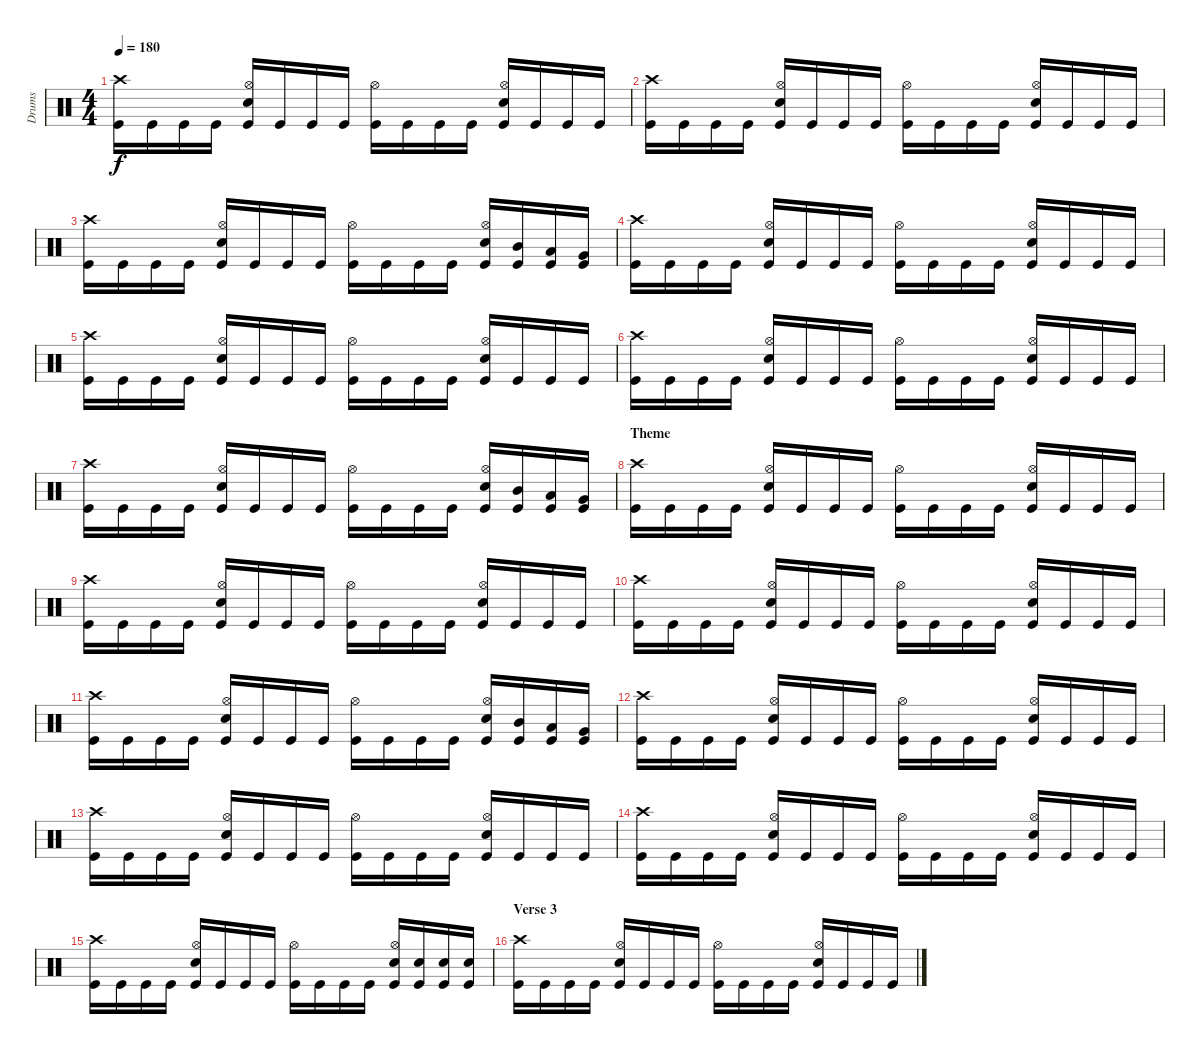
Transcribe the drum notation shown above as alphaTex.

\track ("Drums" "Drums") {instrument percussion}
\staff {score}
\articulation defaults
\ts (4 4)
\tempo 180
\clef neutral
\ks c
("Crash high (hit)" "Kick (hit)").16{dy f} "Kick (hit)".16 "Kick (hit)".16 "Kick (hit)".16 ("Hi-Hat (open)" "Snare (hit) 2" "Kick (hit)").16 "Kick (hit)".16 "Kick (hit)".16 "Kick (hit)".16 ("Hi-Hat (open)" "Kick (hit)").16 "Kick (hit)".16 "Kick (hit)".16 "Kick (hit)".16 ("Hi-Hat (open)" "Snare (hit) 2" "Kick (hit)").16 "Kick (hit)".16 "Kick (hit)".16 "Kick (hit)".16 |
("Crash high (hit)" "Kick (hit)").16 "Kick (hit)".16 "Kick (hit)".16 "Kick (hit)".16 ("Hi-Hat (open)" "Snare (hit) 2" "Kick (hit)").16 "Kick (hit)".16 "Kick (hit)".16 "Kick (hit)".16 ("Hi-Hat (open)" "Kick (hit)").16 "Kick (hit)".16 "Kick (hit)".16 "Kick (hit)".16 ("Hi-Hat (open)" "Snare (hit) 2" "Kick (hit)").16 "Kick (hit)".16 "Kick (hit)".16 "Kick (hit)".16 |
("Crash high (hit)" "Kick (hit)").16 "Kick (hit)".16 "Kick (hit)".16 "Kick (hit)".16 ("Hi-Hat (open)" "Snare (hit) 2" "Kick (hit)").16 "Kick (hit)".16 "Kick (hit)".16 "Kick (hit)".16 ("Hi-Hat (open)" "Kick (hit)").16 "Kick (hit)".16 "Kick (hit)".16 "Kick (hit)".16 ("Hi-Hat (open)" "Snare (hit) 2" "Kick (hit)").16 ("Mid Tom (hit)" "Kick (hit)").16 ("Low Tom (hit)" "Kick (hit)").16 ("Very Low Tom (hit)" "Kick (hit)").16 |
("Crash high (hit)" "Kick (hit)").16 "Kick (hit)".16 "Kick (hit)".16 "Kick (hit)".16 ("Hi-Hat (open)" "Snare (hit) 2" "Kick (hit)").16 "Kick (hit)".16 "Kick (hit)".16 "Kick (hit)".16 ("Hi-Hat (open)" "Kick (hit)").16 "Kick (hit)".16 "Kick (hit)".16 "Kick (hit)".16 ("Hi-Hat (open)" "Snare (hit) 2" "Kick (hit)").16 "Kick (hit)".16 "Kick (hit)".16 "Kick (hit)".16 |
("Crash high (hit)" "Kick (hit)").16 "Kick (hit)".16 "Kick (hit)".16 "Kick (hit)".16 ("Hi-Hat (open)" "Snare (hit) 2" "Kick (hit)").16 "Kick (hit)".16 "Kick (hit)".16 "Kick (hit)".16 ("Hi-Hat (open)" "Kick (hit)").16 "Kick (hit)".16 "Kick (hit)".16 "Kick (hit)".16 ("Hi-Hat (open)" "Snare (hit) 2" "Kick (hit)").16 "Kick (hit)".16 "Kick (hit)".16 "Kick (hit)".16 |
("Crash high (hit)" "Kick (hit)").16 "Kick (hit)".16 "Kick (hit)".16 "Kick (hit)".16 ("Hi-Hat (open)" "Snare (hit) 2" "Kick (hit)").16 "Kick (hit)".16 "Kick (hit)".16 "Kick (hit)".16 ("Hi-Hat (open)" "Kick (hit)").16 "Kick (hit)".16 "Kick (hit)".16 "Kick (hit)".16 ("Hi-Hat (open)" "Snare (hit) 2" "Kick (hit)").16 "Kick (hit)".16 "Kick (hit)".16 "Kick (hit)".16 |
("Crash high (hit)" "Kick (hit)").16 "Kick (hit)".16 "Kick (hit)".16 "Kick (hit)".16 ("Hi-Hat (open)" "Snare (hit) 2" "Kick (hit)").16 "Kick (hit)".16 "Kick (hit)".16 "Kick (hit)".16 ("Hi-Hat (open)" "Kick (hit)").16 "Kick (hit)".16 "Kick (hit)".16 "Kick (hit)".16 ("Hi-Hat (open)" "Snare (hit) 2" "Kick (hit)").16 ("Mid Tom (hit)" "Kick (hit)").16 ("Low Tom (hit)" "Kick (hit)").16 ("Very Low Tom (hit)" "Kick (hit)").16 |
\section ("" "Theme")
("Crash high (hit)" "Kick (hit)").16 "Kick (hit)".16 "Kick (hit)".16 "Kick (hit)".16 ("Hi-Hat (open)" "Snare (hit) 2" "Kick (hit)").16 "Kick (hit)".16 "Kick (hit)".16 "Kick (hit)".16 ("Hi-Hat (open)" "Kick (hit)").16 "Kick (hit)".16 "Kick (hit)".16 "Kick (hit)".16 ("Hi-Hat (open)" "Snare (hit) 2" "Kick (hit)").16 "Kick (hit)".16 "Kick (hit)".16 "Kick (hit)".16 |
("Crash high (hit)" "Kick (hit)").16 "Kick (hit)".16 "Kick (hit)".16 "Kick (hit)".16 ("Hi-Hat (open)" "Snare (hit) 2" "Kick (hit)").16 "Kick (hit)".16 "Kick (hit)".16 "Kick (hit)".16 ("Hi-Hat (open)" "Kick (hit)").16 "Kick (hit)".16 "Kick (hit)".16 "Kick (hit)".16 ("Hi-Hat (open)" "Snare (hit) 2" "Kick (hit)").16 "Kick (hit)".16 "Kick (hit)".16 "Kick (hit)".16 |
("Crash high (hit)" "Kick (hit)").16 "Kick (hit)".16 "Kick (hit)".16 "Kick (hit)".16 ("Hi-Hat (open)" "Snare (hit) 2" "Kick (hit)").16 "Kick (hit)".16 "Kick (hit)".16 "Kick (hit)".16 ("Hi-Hat (open)" "Kick (hit)").16 "Kick (hit)".16 "Kick (hit)".16 "Kick (hit)".16 ("Hi-Hat (open)" "Snare (hit) 2" "Kick (hit)").16 "Kick (hit)".16 "Kick (hit)".16 "Kick (hit)".16 |
("Crash high (hit)" "Kick (hit)").16 "Kick (hit)".16 "Kick (hit)".16 "Kick (hit)".16 ("Hi-Hat (open)" "Snare (hit) 2" "Kick (hit)").16 "Kick (hit)".16 "Kick (hit)".16 "Kick (hit)".16 ("Hi-Hat (open)" "Kick (hit)").16 "Kick (hit)".16 "Kick (hit)".16 "Kick (hit)".16 ("Hi-Hat (open)" "Snare (hit) 2" "Kick (hit)").16 ("Mid Tom (hit)" "Kick (hit)").16 ("Low Tom (hit)" "Kick (hit)").16 ("Very Low Tom (hit)" "Kick (hit)").16 |
("Crash high (hit)" "Kick (hit)").16 "Kick (hit)".16 "Kick (hit)".16 "Kick (hit)".16 ("Hi-Hat (open)" "Snare (hit) 2" "Kick (hit)").16 "Kick (hit)".16 "Kick (hit)".16 "Kick (hit)".16 ("Hi-Hat (open)" "Kick (hit)").16 "Kick (hit)".16 "Kick (hit)".16 "Kick (hit)".16 ("Hi-Hat (open)" "Snare (hit) 2" "Kick (hit)").16 "Kick (hit)".16 "Kick (hit)".16 "Kick (hit)".16 |
("Crash high (hit)" "Kick (hit)").16 "Kick (hit)".16 "Kick (hit)".16 "Kick (hit)".16 ("Hi-Hat (open)" "Snare (hit) 2" "Kick (hit)").16 "Kick (hit)".16 "Kick (hit)".16 "Kick (hit)".16 ("Hi-Hat (open)" "Kick (hit)").16 "Kick (hit)".16 "Kick (hit)".16 "Kick (hit)".16 ("Hi-Hat (open)" "Snare (hit) 2" "Kick (hit)").16 "Kick (hit)".16 "Kick (hit)".16 "Kick (hit)".16 |
("Crash high (hit)" "Kick (hit)").16 "Kick (hit)".16 "Kick (hit)".16 "Kick (hit)".16 ("Hi-Hat (open)" "Snare (hit) 2" "Kick (hit)").16 "Kick (hit)".16 "Kick (hit)".16 "Kick (hit)".16 ("Hi-Hat (open)" "Kick (hit)").16 "Kick (hit)".16 "Kick (hit)".16 "Kick (hit)".16 ("Hi-Hat (open)" "Snare (hit) 2" "Kick (hit)").16 "Kick (hit)".16 "Kick (hit)".16 "Kick (hit)".16 |
("Crash high (hit)" "Kick (hit)").16 "Kick (hit)".16 "Kick (hit)".16 "Kick (hit)".16 ("Hi-Hat (open)" "Snare (hit) 2" "Kick (hit)").16 "Kick (hit)".16 "Kick (hit)".16 "Kick (hit)".16 ("Hi-Hat (open)" "Kick (hit)").16 "Kick (hit)".16 "Kick (hit)".16 "Kick (hit)".16 ("Hi-Hat (open)" "Snare (hit) 2" "Kick (hit)").16 ("Snare (hit) 2" "Kick (hit)").16 ("Snare (hit) 2" "Kick (hit)").16 ("Snare (hit) 2" "Kick (hit)").16 |
\section ("" "Verse 3")
("Crash high (hit)" "Kick (hit)").16 "Kick (hit)".16 "Kick (hit)".16 "Kick (hit)".16 ("Hi-Hat (open)" "Snare (hit) 2" "Kick (hit)").16 "Kick (hit)".16 "Kick (hit)".16 "Kick (hit)".16 ("Hi-Hat (open)" "Kick (hit)").16 "Kick (hit)".16 "Kick (hit)".16 "Kick (hit)".16 ("Hi-Hat (open)" "Snare (hit) 2" "Kick (hit)").16 "Kick (hit)".16 "Kick (hit)".16 "Kick (hit)".16
